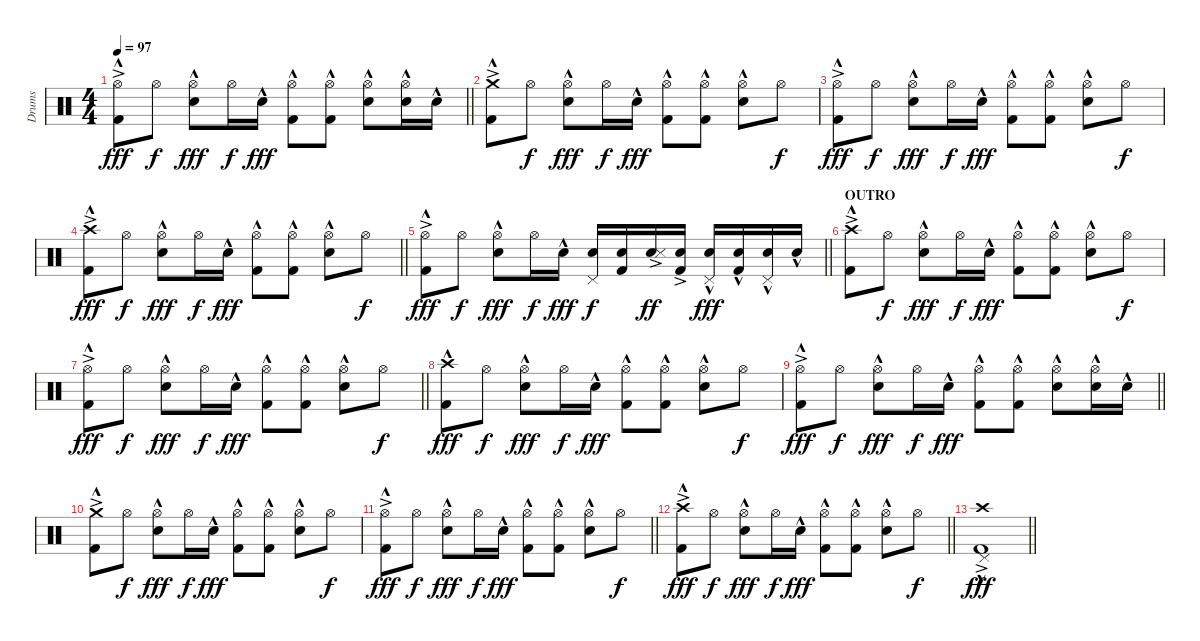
\track ("Drums" "Drums") {instrument percussion}
\staff {score}
\articulation defaults
\ts (4 4)
\tempo 97
\clef neutral
\barLineRight lightlight
\ks c
("Hi-Hat (open)"{ac} "Kick (hit) 2"{hac}).8{dy fff} "Hi-Hat (open)".8{dy f} ("Hi-Hat (open)" "Snare (hit) 2"{hac}).8{dy fff} "Hi-Hat (open)".16{dy f} "Snare (hit) 2"{hac}.16{dy fff} ("Hi-Hat (open)" "Kick (hit) 2"{hac}).8 ("Hi-Hat (open)" "Kick (hit) 2"{hac}).8 ("Hi-Hat (open)" "Snare (hit) 2"{hac}).8 ("Hi-Hat (open)" "Snare (hit) 2"{hac}).16 "Snare (hit) 2"{hac}.16 |
("Crash medium (hit)"{ac} "Kick (hit) 2"{hac}).8 "Hi-Hat (open)".8{dy f} ("Hi-Hat (open)" "Snare (hit) 2"{hac}).8{dy fff} "Hi-Hat (open)".16{dy f} "Snare (hit) 2"{hac}.16{dy fff} ("Hi-Hat (open)" "Kick (hit) 2"{hac}).8 ("Hi-Hat (open)" "Kick (hit) 2"{hac}).8 ("Hi-Hat (open)" "Snare (hit) 2"{hac}).8 "Hi-Hat (open)".8{dy f} |
("Hi-Hat (open)"{ac} "Kick (hit) 2"{hac}).8{dy fff} "Hi-Hat (open)".8{dy f} ("Hi-Hat (open)" "Snare (hit) 2"{hac}).8{dy fff} "Hi-Hat (open)".16{dy f} "Snare (hit) 2"{hac}.16{dy fff} ("Hi-Hat (open)" "Kick (hit) 2"{hac}).8 ("Hi-Hat (open)" "Kick (hit) 2"{hac}).8 ("Hi-Hat (open)" "Snare (hit) 2"{hac}).8 "Hi-Hat (open)".8{dy f} |
\barLineRight lightlight
("Crash high (hit)"{ac} "Kick (hit) 2"{hac}).8{dy fff} "Hi-Hat (open)".8{dy f} ("Hi-Hat (open)" "Snare (hit) 2"{hac}).8{dy fff} "Hi-Hat (open)".16{dy f} "Snare (hit) 2"{hac}.16{dy fff} ("Hi-Hat (open)" "Kick (hit) 2"{hac}).8 ("Hi-Hat (open)" "Kick (hit) 2"{hac}).8 ("Hi-Hat (open)" "Snare (hit) 2"{hac}).8 "Hi-Hat (open)".8{dy f} |
\barLineRight lightlight
("Hi-Hat (open)"{ac} "Kick (hit) 2"{hac}).8{dy fff} "Hi-Hat (open)".8{dy f} ("Hi-Hat (open)" "Snare (hit) 2"{hac}).8{dy fff} "Hi-Hat (open)".16{dy f} "Snare (hit) 2"{hac}.16{dy fff} ("Snare (hit) 2" "Pedal Hi-Hat (hit)").16{dy f} ("Snare (hit) 2" "Kick (hit) 2").16 ("Snare (hit) 2"{ac} "Metronome (hit)").16{dy ff} ("Snare (hit) 2"{ac} "Kick (hit) 2").16 ("Snare (hit) 2"{hac} "Pedal Hi-Hat (hit)").16{dy fff} ("Snare (hit) 2"{hac} "Kick (hit) 2").16 ("Snare (hit) 2"{hac} "Pedal Hi-Hat (hit)").16 "Snare (hit) 2"{hac}.16 |
\section ("" "OUTRO")
("Crash high (hit)"{ac} "Kick (hit) 2"{hac}).8 "Hi-Hat (open)".8{dy f} ("Hi-Hat (open)" "Snare (hit) 2"{hac}).8{dy fff} "Hi-Hat (open)".16{dy f} "Snare (hit) 2"{hac}.16{dy fff} ("Hi-Hat (open)" "Kick (hit) 2"{hac}).8 ("Hi-Hat (open)" "Kick (hit) 2"{hac}).8 ("Hi-Hat (open)" "Snare (hit) 2"{hac}).8 "Hi-Hat (open)".8{dy f} |
\barLineRight lightlight
("Hi-Hat (open)"{ac} "Kick (hit) 2"{hac}).8{dy fff} "Hi-Hat (open)".8{dy f} ("Hi-Hat (open)" "Snare (hit) 2"{hac}).8{dy fff} "Hi-Hat (open)".16{dy f} "Snare (hit) 2"{hac}.16{dy fff} ("Hi-Hat (open)" "Kick (hit) 2"{hac}).8 ("Hi-Hat (open)" "Kick (hit) 2"{hac}).8 ("Hi-Hat (open)" "Snare (hit) 2"{hac}).8 "Hi-Hat (open)".8{dy f} |
("Crash high (hit)"{hac} "Kick (hit) 2"{hac}).8{dy fff} "Hi-Hat (open)".8{dy f} ("Hi-Hat (open)" "Snare (hit) 2"{hac}).8{dy fff} "Hi-Hat (open)".16{dy f} "Snare (hit) 2"{hac}.16{dy fff} ("Hi-Hat (open)" "Kick (hit) 2"{hac}).8 ("Hi-Hat (open)" "Kick (hit) 2"{hac}).8 ("Hi-Hat (open)" "Snare (hit) 2"{hac}).8 "Hi-Hat (open)".8{dy f} |
\barLineRight lightlight
("Hi-Hat (open)"{ac} "Kick (hit) 2"{hac}).8{dy fff} "Hi-Hat (open)".8{dy f} ("Hi-Hat (open)" "Snare (hit) 2"{hac}).8{dy fff} "Hi-Hat (open)".16{dy f} "Snare (hit) 2"{hac}.16{dy fff} ("Hi-Hat (open)" "Kick (hit) 2"{hac}).8 ("Hi-Hat (open)" "Kick (hit) 2"{hac}).8 ("Hi-Hat (open)" "Snare (hit) 2"{hac}).8 ("Hi-Hat (open)" "Snare (hit) 2"{hac}).16 "Snare (hit) 2"{hac}.16 |
("Crash medium (hit)"{ac} "Kick (hit) 2"{hac}).8 "Hi-Hat (open)".8{dy f} ("Hi-Hat (open)" "Snare (hit) 2"{hac}).8{dy fff} "Hi-Hat (open)".16{dy f} "Snare (hit) 2"{hac}.16{dy fff} ("Hi-Hat (open)" "Kick (hit) 2"{hac}).8 ("Hi-Hat (open)" "Kick (hit) 2"{hac}).8 ("Hi-Hat (open)" "Snare (hit) 2"{hac}).8 "Hi-Hat (open)".8{dy f} |
\barLineRight lightlight
("Hi-Hat (open)"{ac} "Kick (hit) 2"{hac}).8{dy fff} "Hi-Hat (open)".8{dy f} ("Hi-Hat (open)" "Snare (hit) 2"{hac}).8{dy fff} "Hi-Hat (open)".16{dy f} "Snare (hit) 2"{hac}.16{dy fff} ("Hi-Hat (open)" "Kick (hit) 2"{hac}).8 ("Hi-Hat (open)" "Kick (hit) 2"{hac}).8 ("Hi-Hat (open)" "Snare (hit) 2"{hac}).8 "Hi-Hat (open)".8{dy f} |
\barLineRight lightlight
("Crash high (hit)"{ac} "Kick (hit) 2"{hac}).8{dy fff} "Hi-Hat (open)".8{dy f} ("Hi-Hat (open)" "Snare (hit) 2"{hac}).8{dy fff} "Hi-Hat (open)".16{dy f} "Snare (hit) 2"{hac}.16{dy fff} ("Hi-Hat (open)" "Kick (hit) 2"{hac}).8 ("Hi-Hat (open)" "Kick (hit) 2"{hac}).8 ("Hi-Hat (open)" "Snare (hit) 2"{hac}).8 "Hi-Hat (open)".8{dy f} |
\barLineRight lightlight
("Crash high (hit)"{ac} "Pedal Hi-Hat (hit)" "Kick (hit) 2"{hac}).1{dy fff}
